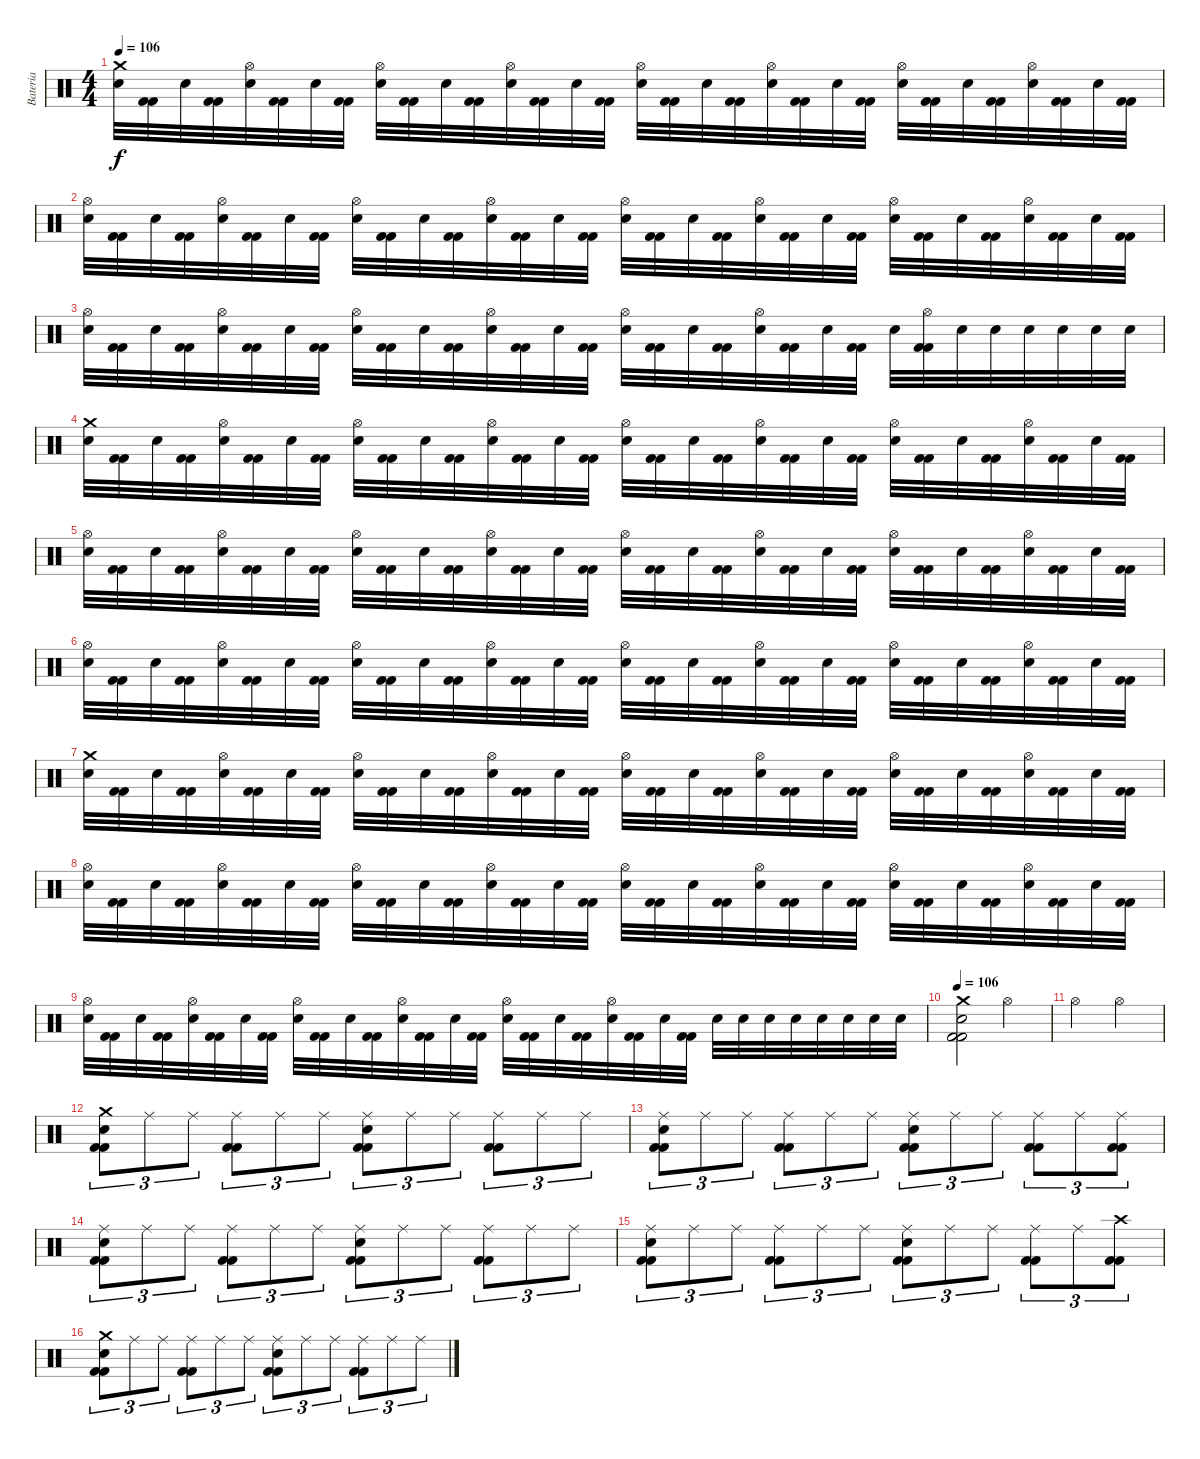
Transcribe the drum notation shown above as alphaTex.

\track ("Bateria" "Bateria") {instrument percussion}
\staff {score}
\articulation defaults
\ts (4 4)
\tempo 106
\clef neutral
\ks c
("Crash medium (hit)" "Snare (hit) 2").32{dy f} ("Kick (hit) 2" "Kick (hit) 2").32 "Snare (hit) 2".32 ("Kick (hit) 2" "Kick (hit) 2").32 ("Hi-Hat (open)" "Snare (hit) 2").32 ("Kick (hit) 2" "Kick (hit) 2").32 "Snare (hit) 2".32 ("Kick (hit) 2" "Kick (hit) 2").32 ("Hi-Hat (open)" "Snare (hit) 2").32 ("Kick (hit) 2" "Kick (hit) 2").32 "Snare (hit) 2".32 ("Kick (hit) 2" "Kick (hit) 2").32 ("Hi-Hat (open)" "Snare (hit) 2").32 ("Kick (hit) 2" "Kick (hit) 2").32 "Snare (hit) 2".32 ("Kick (hit) 2" "Kick (hit) 2").32 ("Hi-Hat (open)" "Snare (hit) 2").32 ("Kick (hit) 2" "Kick (hit) 2").32 "Snare (hit) 2".32 ("Kick (hit) 2" "Kick (hit) 2").32 ("Hi-Hat (open)" "Snare (hit) 2").32 ("Kick (hit) 2" "Kick (hit) 2").32 "Snare (hit) 2".32 ("Kick (hit) 2" "Kick (hit) 2").32 ("Hi-Hat (open)" "Snare (hit) 2").32 ("Kick (hit) 2" "Kick (hit) 2").32 "Snare (hit) 2".32 ("Kick (hit) 2" "Kick (hit) 2").32 ("Hi-Hat (open)" "Snare (hit) 2").32 ("Kick (hit) 2" "Kick (hit) 2").32 "Snare (hit) 2".32 ("Kick (hit) 2" "Kick (hit) 2").32 |
("Hi-Hat (open)" "Snare (hit) 2").32 ("Kick (hit) 2" "Kick (hit) 2").32 "Snare (hit) 2".32 ("Kick (hit) 2" "Kick (hit) 2").32 ("Hi-Hat (open)" "Snare (hit) 2").32 ("Kick (hit) 2" "Kick (hit) 2").32 "Snare (hit) 2".32 ("Kick (hit) 2" "Kick (hit) 2").32 ("Hi-Hat (open)" "Snare (hit) 2").32 ("Kick (hit) 2" "Kick (hit) 2").32 "Snare (hit) 2".32 ("Kick (hit) 2" "Kick (hit) 2").32 ("Hi-Hat (open)" "Snare (hit) 2").32 ("Kick (hit) 2" "Kick (hit) 2").32 "Snare (hit) 2".32 ("Kick (hit) 2" "Kick (hit) 2").32 ("Hi-Hat (open)" "Snare (hit) 2").32 ("Kick (hit) 2" "Kick (hit) 2").32 "Snare (hit) 2".32 ("Kick (hit) 2" "Kick (hit) 2").32 ("Hi-Hat (open)" "Snare (hit) 2").32 ("Kick (hit) 2" "Kick (hit) 2").32 "Snare (hit) 2".32 ("Kick (hit) 2" "Kick (hit) 2").32 ("Hi-Hat (open)" "Snare (hit) 2").32 ("Kick (hit) 2" "Kick (hit) 2").32 "Snare (hit) 2".32 ("Kick (hit) 2" "Kick (hit) 2").32 ("Hi-Hat (open)" "Snare (hit) 2").32 ("Kick (hit) 2" "Kick (hit) 2").32 "Snare (hit) 2".32 ("Kick (hit) 2" "Kick (hit) 2").32 |
("Hi-Hat (open)" "Snare (hit) 2").32 ("Kick (hit) 2" "Kick (hit) 2").32 "Snare (hit) 2".32 ("Kick (hit) 2" "Kick (hit) 2").32 ("Hi-Hat (open)" "Snare (hit) 2").32 ("Kick (hit) 2" "Kick (hit) 2").32 "Snare (hit) 2".32 ("Kick (hit) 2" "Kick (hit) 2").32 ("Hi-Hat (open)" "Snare (hit) 2").32 ("Kick (hit) 2" "Kick (hit) 2").32 "Snare (hit) 2".32 ("Kick (hit) 2" "Kick (hit) 2").32 ("Hi-Hat (open)" "Snare (hit) 2").32 ("Kick (hit) 2" "Kick (hit) 2").32 "Snare (hit) 2".32 ("Kick (hit) 2" "Kick (hit) 2").32 ("Hi-Hat (open)" "Snare (hit) 2").32 ("Kick (hit) 2" "Kick (hit) 2").32 "Snare (hit) 2".32 ("Kick (hit) 2" "Kick (hit) 2").32 ("Hi-Hat (open)" "Snare (hit) 2").32 ("Kick (hit) 2" "Kick (hit) 2").32 "Snare (hit) 2".32 ("Kick (hit) 2" "Kick (hit) 2").32 "Snare (hit) 2".32 ("Kick (hit) 2" "Hi-Hat (open)" "Kick (hit) 2").32 "Snare (hit) 2".32 "Snare (hit) 2".32 "Snare (hit) 2".32 "Snare (hit) 2".32 "Snare (hit) 2".32 "Snare (hit) 2".32 |
("Crash medium (hit)" "Snare (hit) 2").32 ("Kick (hit) 2" "Kick (hit) 2").32 "Snare (hit) 2".32 ("Kick (hit) 2" "Kick (hit) 2").32 ("Hi-Hat (open)" "Snare (hit) 2").32 ("Kick (hit) 2" "Kick (hit) 2").32 "Snare (hit) 2".32 ("Kick (hit) 2" "Kick (hit) 2").32 ("Hi-Hat (open)" "Snare (hit) 2").32 ("Kick (hit) 2" "Kick (hit) 2").32 "Snare (hit) 2".32 ("Kick (hit) 2" "Kick (hit) 2").32 ("Hi-Hat (open)" "Snare (hit) 2").32 ("Kick (hit) 2" "Kick (hit) 2").32 "Snare (hit) 2".32 ("Kick (hit) 2" "Kick (hit) 2").32 ("Hi-Hat (open)" "Snare (hit) 2").32 ("Kick (hit) 2" "Kick (hit) 2").32 "Snare (hit) 2".32 ("Kick (hit) 2" "Kick (hit) 2").32 ("Hi-Hat (open)" "Snare (hit) 2").32 ("Kick (hit) 2" "Kick (hit) 2").32 "Snare (hit) 2".32 ("Kick (hit) 2" "Kick (hit) 2").32 ("Hi-Hat (open)" "Snare (hit) 2").32 ("Kick (hit) 2" "Kick (hit) 2").32 "Snare (hit) 2".32 ("Kick (hit) 2" "Kick (hit) 2").32 ("Hi-Hat (open)" "Snare (hit) 2").32 ("Kick (hit) 2" "Kick (hit) 2").32 "Snare (hit) 2".32 ("Kick (hit) 2" "Kick (hit) 2").32 |
("Hi-Hat (open)" "Snare (hit) 2").32 ("Kick (hit) 2" "Kick (hit) 2").32 "Snare (hit) 2".32 ("Kick (hit) 2" "Kick (hit) 2").32 ("Hi-Hat (open)" "Snare (hit) 2").32 ("Kick (hit) 2" "Kick (hit) 2").32 "Snare (hit) 2".32 ("Kick (hit) 2" "Kick (hit) 2").32 ("Hi-Hat (open)" "Snare (hit) 2").32 ("Kick (hit) 2" "Kick (hit) 2").32 "Snare (hit) 2".32 ("Kick (hit) 2" "Kick (hit) 2").32 ("Hi-Hat (open)" "Snare (hit) 2").32 ("Kick (hit) 2" "Kick (hit) 2").32 "Snare (hit) 2".32 ("Kick (hit) 2" "Kick (hit) 2").32 ("Hi-Hat (open)" "Snare (hit) 2").32 ("Kick (hit) 2" "Kick (hit) 2").32 "Snare (hit) 2".32 ("Kick (hit) 2" "Kick (hit) 2").32 ("Hi-Hat (open)" "Snare (hit) 2").32 ("Kick (hit) 2" "Kick (hit) 2").32 "Snare (hit) 2".32 ("Kick (hit) 2" "Kick (hit) 2").32 ("Hi-Hat (open)" "Snare (hit) 2").32 ("Kick (hit) 2" "Kick (hit) 2").32 "Snare (hit) 2".32 ("Kick (hit) 2" "Kick (hit) 2").32 ("Hi-Hat (open)" "Snare (hit) 2").32 ("Kick (hit) 2" "Kick (hit) 2").32 "Snare (hit) 2".32 ("Kick (hit) 2" "Kick (hit) 2").32 |
("Hi-Hat (open)" "Snare (hit) 2").32 ("Kick (hit) 2" "Kick (hit) 2").32 "Snare (hit) 2".32 ("Kick (hit) 2" "Kick (hit) 2").32 ("Hi-Hat (open)" "Snare (hit) 2").32 ("Kick (hit) 2" "Kick (hit) 2").32 "Snare (hit) 2".32 ("Kick (hit) 2" "Kick (hit) 2").32 ("Hi-Hat (open)" "Snare (hit) 2").32 ("Kick (hit) 2" "Kick (hit) 2").32 "Snare (hit) 2".32 ("Kick (hit) 2" "Kick (hit) 2").32 ("Hi-Hat (open)" "Snare (hit) 2").32 ("Kick (hit) 2" "Kick (hit) 2").32 "Snare (hit) 2".32 ("Kick (hit) 2" "Kick (hit) 2").32 ("Hi-Hat (open)" "Snare (hit) 2").32 ("Kick (hit) 2" "Kick (hit) 2").32 "Snare (hit) 2".32 ("Kick (hit) 2" "Kick (hit) 2").32 ("Hi-Hat (open)" "Snare (hit) 2").32 ("Kick (hit) 2" "Kick (hit) 2").32 "Snare (hit) 2".32 ("Kick (hit) 2" "Kick (hit) 2").32 ("Hi-Hat (open)" "Snare (hit) 2").32 ("Kick (hit) 2" "Kick (hit) 2").32 "Snare (hit) 2".32 ("Kick (hit) 2" "Kick (hit) 2").32 ("Hi-Hat (open)" "Snare (hit) 2").32 ("Kick (hit) 2" "Kick (hit) 2").32 "Snare (hit) 2".32 ("Kick (hit) 2" "Kick (hit) 2").32 |
("Crash medium (hit)" "Snare (hit) 2").32 ("Kick (hit) 2" "Kick (hit) 2").32 "Snare (hit) 2".32 ("Kick (hit) 2" "Kick (hit) 2").32 ("Hi-Hat (open)" "Snare (hit) 2").32 ("Kick (hit) 2" "Kick (hit) 2").32 "Snare (hit) 2".32 ("Kick (hit) 2" "Kick (hit) 2").32 ("Hi-Hat (open)" "Snare (hit) 2").32 ("Kick (hit) 2" "Kick (hit) 2").32 "Snare (hit) 2".32 ("Kick (hit) 2" "Kick (hit) 2").32 ("Hi-Hat (open)" "Snare (hit) 2").32 ("Kick (hit) 2" "Kick (hit) 2").32 "Snare (hit) 2".32 ("Kick (hit) 2" "Kick (hit) 2").32 ("Hi-Hat (open)" "Snare (hit) 2").32 ("Kick (hit) 2" "Kick (hit) 2").32 "Snare (hit) 2".32 ("Kick (hit) 2" "Kick (hit) 2").32 ("Hi-Hat (open)" "Snare (hit) 2").32 ("Kick (hit) 2" "Kick (hit) 2").32 "Snare (hit) 2".32 ("Kick (hit) 2" "Kick (hit) 2").32 ("Hi-Hat (open)" "Snare (hit) 2").32 ("Kick (hit) 2" "Kick (hit) 2").32 "Snare (hit) 2".32 ("Kick (hit) 2" "Kick (hit) 2").32 ("Hi-Hat (open)" "Snare (hit) 2").32 ("Kick (hit) 2" "Kick (hit) 2").32 "Snare (hit) 2".32 ("Kick (hit) 2" "Kick (hit) 2").32 |
("Hi-Hat (open)" "Snare (hit) 2").32 ("Kick (hit) 2" "Kick (hit) 2").32 "Snare (hit) 2".32 ("Kick (hit) 2" "Kick (hit) 2").32 ("Hi-Hat (open)" "Snare (hit) 2").32 ("Kick (hit) 2" "Kick (hit) 2").32 "Snare (hit) 2".32 ("Kick (hit) 2" "Kick (hit) 2").32 ("Hi-Hat (open)" "Snare (hit) 2").32 ("Kick (hit) 2" "Kick (hit) 2").32 "Snare (hit) 2".32 ("Kick (hit) 2" "Kick (hit) 2").32 ("Hi-Hat (open)" "Snare (hit) 2").32 ("Kick (hit) 2" "Kick (hit) 2").32 "Snare (hit) 2".32 ("Kick (hit) 2" "Kick (hit) 2").32 ("Hi-Hat (open)" "Snare (hit) 2").32 ("Kick (hit) 2" "Kick (hit) 2").32 "Snare (hit) 2".32 ("Kick (hit) 2" "Kick (hit) 2").32 ("Hi-Hat (open)" "Snare (hit) 2").32 ("Kick (hit) 2" "Kick (hit) 2").32 "Snare (hit) 2".32 ("Kick (hit) 2" "Kick (hit) 2").32 ("Hi-Hat (open)" "Snare (hit) 2").32 ("Kick (hit) 2" "Kick (hit) 2").32 "Snare (hit) 2".32 ("Kick (hit) 2" "Kick (hit) 2").32 ("Hi-Hat (open)" "Snare (hit) 2").32 ("Kick (hit) 2" "Kick (hit) 2").32 "Snare (hit) 2".32 ("Kick (hit) 2" "Kick (hit) 2").32 |
("Hi-Hat (open)" "Snare (hit) 2").32 ("Kick (hit) 2" "Kick (hit) 2").32 "Snare (hit) 2".32 ("Kick (hit) 2" "Kick (hit) 2").32 ("Hi-Hat (open)" "Snare (hit) 2").32 ("Kick (hit) 2" "Kick (hit) 2").32 "Snare (hit) 2".32 ("Kick (hit) 2" "Kick (hit) 2").32 ("Hi-Hat (open)" "Snare (hit) 2").32 ("Kick (hit) 2" "Kick (hit) 2").32 "Snare (hit) 2".32 ("Kick (hit) 2" "Kick (hit) 2").32 ("Hi-Hat (open)" "Snare (hit) 2").32 ("Kick (hit) 2" "Kick (hit) 2").32 "Snare (hit) 2".32 ("Kick (hit) 2" "Kick (hit) 2").32 ("Hi-Hat (open)" "Snare (hit) 2").32 ("Kick (hit) 2" "Kick (hit) 2").32 "Snare (hit) 2".32 ("Kick (hit) 2" "Kick (hit) 2").32 ("Hi-Hat (open)" "Snare (hit) 2").32 ("Kick (hit) 2" "Kick (hit) 2").32 "Snare (hit) 2".32 ("Kick (hit) 2" "Kick (hit) 2").32 "Snare (hit) 2".32 "Snare (hit) 2".32 "Snare (hit) 2".32 "Snare (hit) 2".32 "Snare (hit) 2".32 "Snare (hit) 2".32 "Snare (hit) 2".32 "Snare (hit) 2".32 |
\tempo 106
("Kick (hit) 2" "Kick (hit) 2" "Snare (hit) 2" "Crash medium (hit)").2 "Hi-Hat (open)".2 |
"Hi-Hat (open)".2 "Hi-Hat (open)".2 |
("Kick (hit) 2" "Kick (hit) 2" "Snare (hit) 2" "Crash medium (hit)").8{tu (3 2)} "Ride (middle)".8{tu (3 2)} "Ride (middle)".8{tu (3 2)} ("Kick (hit) 2" "Kick (hit) 2" "Ride (middle)").8{tu (3 2)} "Ride (middle)".8{tu (3 2)} "Ride (middle)".8{tu (3 2)} ("Kick (hit) 2" "Kick (hit) 2" "Snare (hit) 2" "Ride (middle)").8{tu (3 2)} "Ride (middle)".8{tu (3 2)} "Ride (middle)".8{tu (3 2)} ("Kick (hit) 2" "Kick (hit) 2" "Ride (middle)").8{tu (3 2)} "Ride (middle)".8{tu (3 2)} "Ride (middle)".8{tu (3 2)} |
("Kick (hit) 2" "Kick (hit) 2" "Snare (hit) 2" "Ride (middle)").8{tu (3 2)} "Ride (middle)".8{tu (3 2)} "Ride (middle)".8{tu (3 2)} ("Kick (hit) 2" "Kick (hit) 2" "Ride (middle)").8{tu (3 2)} "Ride (middle)".8{tu (3 2)} "Ride (middle)".8{tu (3 2)} ("Kick (hit) 2" "Kick (hit) 2" "Snare (hit) 2" "Ride (middle)").8{tu (3 2)} "Ride (middle)".8{tu (3 2)} "Ride (middle)".8{tu (3 2)} ("Kick (hit) 2" "Kick (hit) 2" "Ride (middle)").8{tu (3 2)} "Ride (middle)".8{tu (3 2)} ("Kick (hit) 2" "Kick (hit) 2" "Ride (middle)").8{tu (3 2)} |
("Kick (hit) 2" "Kick (hit) 2" "Snare (hit) 2" "Ride (middle)").8{tu (3 2)} "Ride (middle)".8{tu (3 2)} "Ride (middle)".8{tu (3 2)} ("Kick (hit) 2" "Kick (hit) 2" "Ride (middle)").8{tu (3 2)} "Ride (middle)".8{tu (3 2)} "Ride (middle)".8{tu (3 2)} ("Kick (hit) 2" "Kick (hit) 2" "Snare (hit) 2" "Ride (middle)").8{tu (3 2)} "Ride (middle)".8{tu (3 2)} "Ride (middle)".8{tu (3 2)} ("Kick (hit) 2" "Kick (hit) 2" "Ride (middle)").8{tu (3 2)} "Ride (middle)".8{tu (3 2)} "Ride (middle)".8{tu (3 2)} |
("Kick (hit) 2" "Kick (hit) 2" "Snare (hit) 2" "Ride (middle)").8{tu (3 2)} "Ride (middle)".8{tu (3 2)} "Ride (middle)".8{tu (3 2)} ("Kick (hit) 2" "Kick (hit) 2" "Ride (middle)").8{tu (3 2)} "Ride (middle)".8{tu (3 2)} "Ride (middle)".8{tu (3 2)} ("Kick (hit) 2" "Kick (hit) 2" "Snare (hit) 2" "Ride (middle)").8{tu (3 2)} "Ride (middle)".8{tu (3 2)} "Ride (middle)".8{tu (3 2)} ("Kick (hit) 2" "Kick (hit) 2" "Ride (middle)").8{tu (3 2)} "Ride (middle)".8{tu (3 2)} ("Kick (hit) 2" "Kick (hit) 2" "Crash high (hit)").8{tu (3 2)} |
("Kick (hit) 2" "Kick (hit) 2" "Snare (hit) 2" "Crash medium (hit)").8{tu (3 2)} "Ride (middle)".8{tu (3 2)} "Ride (middle)".8{tu (3 2)} ("Kick (hit) 2" "Kick (hit) 2" "Ride (middle)").8{tu (3 2)} "Ride (middle)".8{tu (3 2)} "Ride (middle)".8{tu (3 2)} ("Kick (hit) 2" "Kick (hit) 2" "Snare (hit) 2" "Ride (middle)").8{tu (3 2)} "Ride (middle)".8{tu (3 2)} "Ride (middle)".8{tu (3 2)} ("Kick (hit) 2" "Kick (hit) 2" "Ride (middle)").8{tu (3 2)} "Ride (middle)".8{tu (3 2)} "Ride (middle)".8{tu (3 2)}
